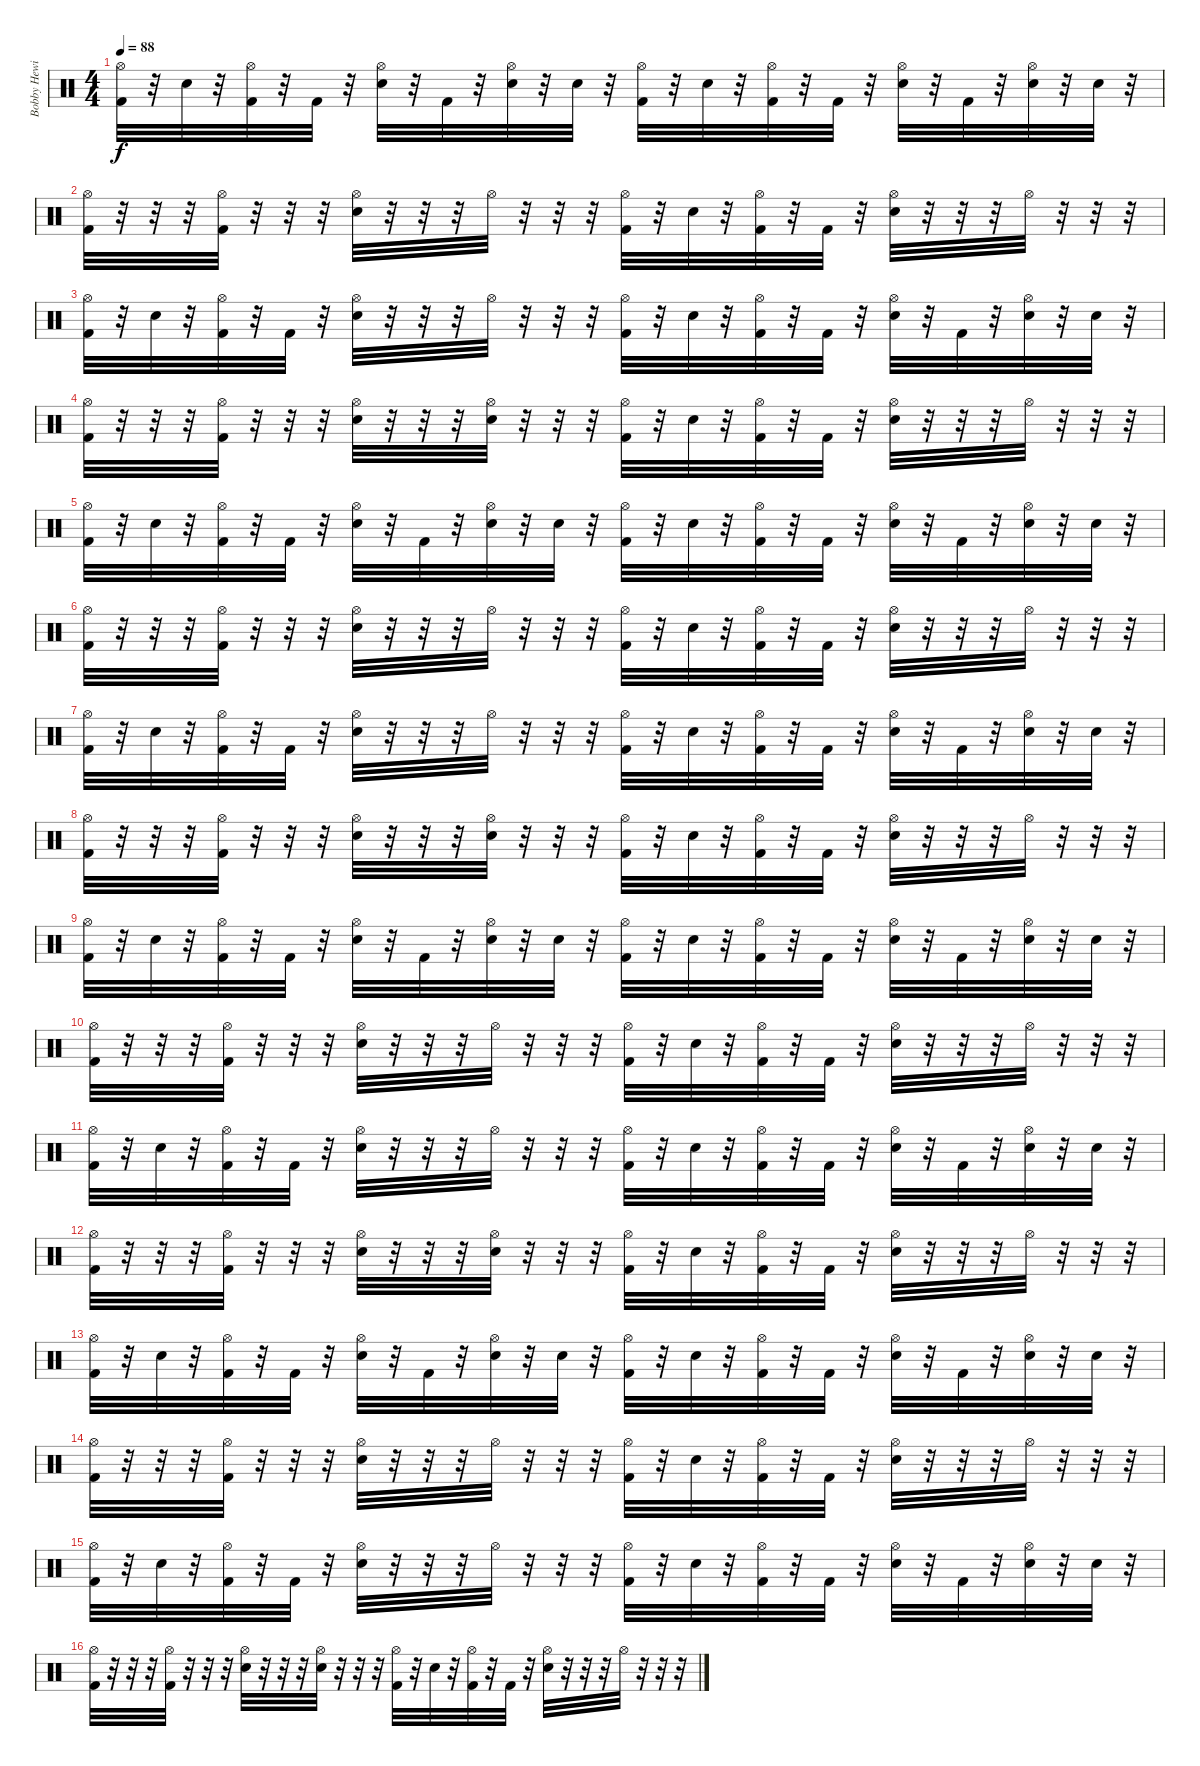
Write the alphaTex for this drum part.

\track ("Bobby Hewit - Drums" "Bobby Hewi") {instrument percussion}
\staff {score}
\articulation defaults
\ts (4 4)
\tempo 88
\clef neutral
\ks c
("Hi-Hat (open)" "Kick (hit) 2").32{dy f} r.32 "Electric Snare (hit)".32 r.32 ("Hi-Hat (open)" "Kick (hit) 2").32 r.32 "Kick (hit) 2".32 r.32 ("Hi-Hat (open)" "Electric Snare (hit)").32 r.32 "Kick (hit) 2".32 r.32 ("Hi-Hat (open)" "Electric Snare (hit)").32 r.32 "Electric Snare (hit)".32 r.32 ("Hi-Hat (open)" "Kick (hit) 2").32 r.32 "Electric Snare (hit)".32 r.32 ("Hi-Hat (open)" "Kick (hit) 2").32 r.32 "Kick (hit) 2".32 r.32 ("Hi-Hat (open)" "Electric Snare (hit)").32 r.32 "Kick (hit) 2".32 r.32 ("Hi-Hat (open)" "Electric Snare (hit)").32 r.32 "Electric Snare (hit)".32 r.32 |
("Hi-Hat (open)" "Kick (hit) 2").32 r.32 r.32 r.32 ("Hi-Hat (open)" "Kick (hit) 2").32 r.32 r.32 r.32 ("Hi-Hat (open)" "Electric Snare (hit)").32 r.32 r.32 r.32 "Hi-Hat (open)".32 r.32 r.32 r.32 ("Hi-Hat (open)" "Kick (hit) 2").32 r.32 "Electric Snare (hit)".32 r.32 ("Hi-Hat (open)" "Kick (hit) 2").32 r.32 "Kick (hit) 2".32 r.32 ("Hi-Hat (open)" "Electric Snare (hit)").32 r.32 r.32 r.32 "Hi-Hat (open)".32 r.32 r.32 r.32 |
("Hi-Hat (open)" "Kick (hit) 2").32 r.32 "Electric Snare (hit)".32 r.32 ("Hi-Hat (open)" "Kick (hit) 2").32 r.32 "Kick (hit) 2".32 r.32 ("Hi-Hat (open)" "Electric Snare (hit)").32 r.32 r.32 r.32 "Hi-Hat (open)".32 r.32 r.32 r.32 ("Hi-Hat (open)" "Kick (hit) 2").32 r.32 "Electric Snare (hit)".32 r.32 ("Hi-Hat (open)" "Kick (hit) 2").32 r.32 "Kick (hit) 2".32 r.32 ("Hi-Hat (open)" "Electric Snare (hit)").32 r.32 "Kick (hit) 2".32 r.32 ("Hi-Hat (open)" "Electric Snare (hit)").32 r.32 "Electric Snare (hit)".32 r.32 |
("Hi-Hat (open)" "Kick (hit) 2").32 r.32 r.32 r.32 ("Hi-Hat (open)" "Kick (hit) 2").32 r.32 r.32 r.32 ("Hi-Hat (open)" "Electric Snare (hit)").32 r.32 r.32 r.32 ("Hi-Hat (open)" "Electric Snare (hit)").32 r.32 r.32 r.32 ("Hi-Hat (open)" "Kick (hit) 2").32 r.32 "Electric Snare (hit)".32 r.32 ("Hi-Hat (open)" "Kick (hit) 2").32 r.32 "Kick (hit) 2".32 r.32 ("Hi-Hat (open)" "Electric Snare (hit)").32 r.32 r.32 r.32 "Hi-Hat (open)".32 r.32 r.32 r.32 |
("Hi-Hat (open)" "Kick (hit) 2").32 r.32 "Electric Snare (hit)".32 r.32 ("Hi-Hat (open)" "Kick (hit) 2").32 r.32 "Kick (hit) 2".32 r.32 ("Hi-Hat (open)" "Electric Snare (hit)").32 r.32 "Kick (hit) 2".32 r.32 ("Hi-Hat (open)" "Electric Snare (hit)").32 r.32 "Electric Snare (hit)".32 r.32 ("Hi-Hat (open)" "Kick (hit) 2").32 r.32 "Electric Snare (hit)".32 r.32 ("Hi-Hat (open)" "Kick (hit) 2").32 r.32 "Kick (hit) 2".32 r.32 ("Hi-Hat (open)" "Electric Snare (hit)").32 r.32 "Kick (hit) 2".32 r.32 ("Hi-Hat (open)" "Electric Snare (hit)").32 r.32 "Electric Snare (hit)".32 r.32 |
("Hi-Hat (open)" "Kick (hit) 2").32 r.32 r.32 r.32 ("Hi-Hat (open)" "Kick (hit) 2").32 r.32 r.32 r.32 ("Hi-Hat (open)" "Electric Snare (hit)").32 r.32 r.32 r.32 "Hi-Hat (open)".32 r.32 r.32 r.32 ("Hi-Hat (open)" "Kick (hit) 2").32 r.32 "Electric Snare (hit)".32 r.32 ("Hi-Hat (open)" "Kick (hit) 2").32 r.32 "Kick (hit) 2".32 r.32 ("Hi-Hat (open)" "Electric Snare (hit)").32 r.32 r.32 r.32 "Hi-Hat (open)".32 r.32 r.32 r.32 |
("Hi-Hat (open)" "Kick (hit) 2").32 r.32 "Electric Snare (hit)".32 r.32 ("Hi-Hat (open)" "Kick (hit) 2").32 r.32 "Kick (hit) 2".32 r.32 ("Hi-Hat (open)" "Electric Snare (hit)").32 r.32 r.32 r.32 "Hi-Hat (open)".32 r.32 r.32 r.32 ("Hi-Hat (open)" "Kick (hit) 2").32 r.32 "Electric Snare (hit)".32 r.32 ("Hi-Hat (open)" "Kick (hit) 2").32 r.32 "Kick (hit) 2".32 r.32 ("Hi-Hat (open)" "Electric Snare (hit)").32 r.32 "Kick (hit) 2".32 r.32 ("Hi-Hat (open)" "Electric Snare (hit)").32 r.32 "Electric Snare (hit)".32 r.32 |
("Hi-Hat (open)" "Kick (hit) 2").32 r.32 r.32 r.32 ("Hi-Hat (open)" "Kick (hit) 2").32 r.32 r.32 r.32 ("Hi-Hat (open)" "Electric Snare (hit)").32 r.32 r.32 r.32 ("Hi-Hat (open)" "Electric Snare (hit)").32 r.32 r.32 r.32 ("Hi-Hat (open)" "Kick (hit) 2").32 r.32 "Electric Snare (hit)".32 r.32 ("Hi-Hat (open)" "Kick (hit) 2").32 r.32 "Kick (hit) 2".32 r.32 ("Hi-Hat (open)" "Electric Snare (hit)").32 r.32 r.32 r.32 "Hi-Hat (open)".32 r.32 r.32 r.32 |
("Hi-Hat (open)" "Kick (hit) 2").32 r.32 "Electric Snare (hit)".32 r.32 ("Hi-Hat (open)" "Kick (hit) 2").32 r.32 "Kick (hit) 2".32 r.32 ("Hi-Hat (open)" "Electric Snare (hit)").32 r.32 "Kick (hit) 2".32 r.32 ("Hi-Hat (open)" "Electric Snare (hit)").32 r.32 "Electric Snare (hit)".32 r.32 ("Hi-Hat (open)" "Kick (hit) 2").32 r.32 "Electric Snare (hit)".32 r.32 ("Hi-Hat (open)" "Kick (hit) 2").32 r.32 "Kick (hit) 2".32 r.32 ("Hi-Hat (open)" "Electric Snare (hit)").32 r.32 "Kick (hit) 2".32 r.32 ("Hi-Hat (open)" "Electric Snare (hit)").32 r.32 "Electric Snare (hit)".32 r.32 |
("Hi-Hat (open)" "Kick (hit) 2").32 r.32 r.32 r.32 ("Hi-Hat (open)" "Kick (hit) 2").32 r.32 r.32 r.32 ("Hi-Hat (open)" "Electric Snare (hit)").32 r.32 r.32 r.32 "Hi-Hat (open)".32 r.32 r.32 r.32 ("Hi-Hat (open)" "Kick (hit) 2").32 r.32 "Electric Snare (hit)".32 r.32 ("Hi-Hat (open)" "Kick (hit) 2").32 r.32 "Kick (hit) 2".32 r.32 ("Hi-Hat (open)" "Electric Snare (hit)").32 r.32 r.32 r.32 "Hi-Hat (open)".32 r.32 r.32 r.32 |
("Hi-Hat (open)" "Kick (hit) 2").32 r.32 "Electric Snare (hit)".32 r.32 ("Hi-Hat (open)" "Kick (hit) 2").32 r.32 "Kick (hit) 2".32 r.32 ("Hi-Hat (open)" "Electric Snare (hit)").32 r.32 r.32 r.32 "Hi-Hat (open)".32 r.32 r.32 r.32 ("Hi-Hat (open)" "Kick (hit) 2").32 r.32 "Electric Snare (hit)".32 r.32 ("Hi-Hat (open)" "Kick (hit) 2").32 r.32 "Kick (hit) 2".32 r.32 ("Hi-Hat (open)" "Electric Snare (hit)").32 r.32 "Kick (hit) 2".32 r.32 ("Hi-Hat (open)" "Electric Snare (hit)").32 r.32 "Electric Snare (hit)".32 r.32 |
("Hi-Hat (open)" "Kick (hit) 2").32 r.32 r.32 r.32 ("Hi-Hat (open)" "Kick (hit) 2").32 r.32 r.32 r.32 ("Hi-Hat (open)" "Electric Snare (hit)").32 r.32 r.32 r.32 ("Hi-Hat (open)" "Electric Snare (hit)").32 r.32 r.32 r.32 ("Hi-Hat (open)" "Kick (hit) 2").32 r.32 "Electric Snare (hit)".32 r.32 ("Hi-Hat (open)" "Kick (hit) 2").32 r.32 "Kick (hit) 2".32 r.32 ("Hi-Hat (open)" "Electric Snare (hit)").32 r.32 r.32 r.32 "Hi-Hat (open)".32 r.32 r.32 r.32 |
("Hi-Hat (open)" "Kick (hit) 2").32 r.32 "Electric Snare (hit)".32 r.32 ("Hi-Hat (open)" "Kick (hit) 2").32 r.32 "Kick (hit) 2".32 r.32 ("Hi-Hat (open)" "Electric Snare (hit)").32 r.32 "Kick (hit) 2".32 r.32 ("Hi-Hat (open)" "Electric Snare (hit)").32 r.32 "Electric Snare (hit)".32 r.32 ("Hi-Hat (open)" "Kick (hit) 2").32 r.32 "Electric Snare (hit)".32 r.32 ("Hi-Hat (open)" "Kick (hit) 2").32 r.32 "Kick (hit) 2".32 r.32 ("Hi-Hat (open)" "Electric Snare (hit)").32 r.32 "Kick (hit) 2".32 r.32 ("Hi-Hat (open)" "Electric Snare (hit)").32 r.32 "Electric Snare (hit)".32 r.32 |
("Hi-Hat (open)" "Kick (hit) 2").32 r.32 r.32 r.32 ("Hi-Hat (open)" "Kick (hit) 2").32 r.32 r.32 r.32 ("Hi-Hat (open)" "Electric Snare (hit)").32 r.32 r.32 r.32 "Hi-Hat (open)".32 r.32 r.32 r.32 ("Hi-Hat (open)" "Kick (hit) 2").32 r.32 "Electric Snare (hit)".32 r.32 ("Hi-Hat (open)" "Kick (hit) 2").32 r.32 "Kick (hit) 2".32 r.32 ("Hi-Hat (open)" "Electric Snare (hit)").32 r.32 r.32 r.32 "Hi-Hat (open)".32 r.32 r.32 r.32 |
("Hi-Hat (open)" "Kick (hit) 2").32 r.32 "Electric Snare (hit)".32 r.32 ("Hi-Hat (open)" "Kick (hit) 2").32 r.32 "Kick (hit) 2".32 r.32 ("Hi-Hat (open)" "Electric Snare (hit)").32 r.32 r.32 r.32 "Hi-Hat (open)".32 r.32 r.32 r.32 ("Hi-Hat (open)" "Kick (hit) 2").32 r.32 "Electric Snare (hit)".32 r.32 ("Hi-Hat (open)" "Kick (hit) 2").32 r.32 "Kick (hit) 2".32 r.32 ("Hi-Hat (open)" "Electric Snare (hit)").32 r.32 "Kick (hit) 2".32 r.32 ("Hi-Hat (open)" "Electric Snare (hit)").32 r.32 "Electric Snare (hit)".32 r.32 |
("Hi-Hat (open)" "Kick (hit) 2").32 r.32 r.32 r.32 ("Hi-Hat (open)" "Kick (hit) 2").32 r.32 r.32 r.32 ("Hi-Hat (open)" "Electric Snare (hit)").32 r.32 r.32 r.32 ("Hi-Hat (open)" "Electric Snare (hit)").32 r.32 r.32 r.32 ("Hi-Hat (open)" "Kick (hit) 2").32 r.32 "Electric Snare (hit)".32 r.32 ("Hi-Hat (open)" "Kick (hit) 2").32 r.32 "Kick (hit) 2".32 r.32 ("Hi-Hat (open)" "Electric Snare (hit)").32 r.32 r.32 r.32 "Hi-Hat (open)".32 r.32 r.32 r.32
